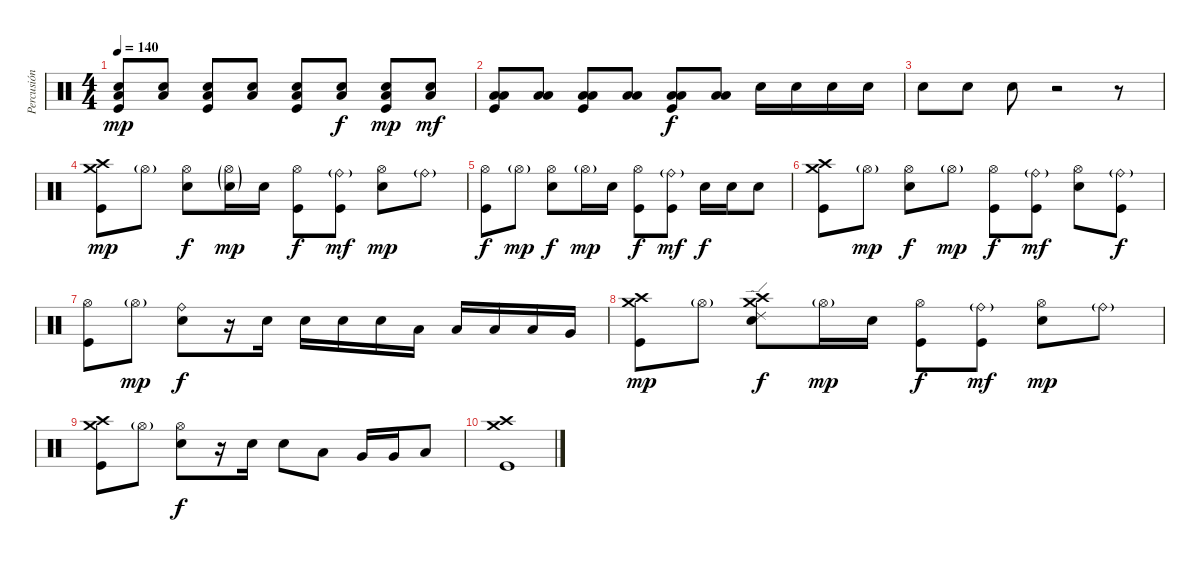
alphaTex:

\track ("Percusión" "Percusión") {instrument percussion}
\staff {score}
\articulation defaults
\ts (4 4)
\tempo 140
\clef neutral
\ks c
("Kick (hit)" "Low Floor Tom (hit)" "Electric Snare (hit)").8{dy mp} ("Low Floor Tom (hit)" "Electric Snare (hit)").8 ("Kick (hit)" "Low Floor Tom (hit)" "Electric Snare (hit)").8 ("Low Floor Tom (hit)" "Electric Snare (hit)").8 ("Kick (hit)" "Low Floor Tom (hit)" "Electric Snare (hit)").8 ("Low Floor Tom (hit)" "Electric Snare (hit)").8{dy f} ("Kick (hit)" "Low Floor Tom (hit)" "Electric Snare (hit)").8{dy mp} ("Low Floor Tom (hit)" "Electric Snare (hit)").8{dy mf} |
("Kick (hit)" "Low Floor Tom (hit)" "Low Tom (hit)").8 ("Low Floor Tom (hit)" "Low Tom (hit)").8 ("Kick (hit)" "Low Floor Tom (hit)" "Low Tom (hit)").8 ("Low Floor Tom (hit)" "Low Tom (hit)").8 ("Kick (hit)" "Low Floor Tom (hit)" "Low Tom (hit)").8{dy f} ("Low Floor Tom (hit)" "Low Tom (hit)").8 "Electric Snare (hit)".16 "Electric Snare (hit)".16 "Electric Snare (hit)".16 "Electric Snare (hit)".16 |
"Electric Snare (hit)".8 "Electric Snare (hit)".8 "Electric Snare (hit)".8 r.2 r.8 |
("Crash high (hit)" "Kick (hit)" "Crash medium (hit)").8{dy mp} "Hi-Hat (open)"{g}.8 ("Hi-Hat (open)" "Electric Snare (hit)").8{dy f} ("Hi-Hat (open)"{g} "Electric Snare (hit)"{g}).16{dy mp} "Electric Snare (hit)".16 ("Hi-Hat (open)" "Kick (hit)").8{dy f} ("Ride (bell)"{g} "Kick (hit)").8{dy mf} ("Hi-Hat (open)" "Electric Snare (hit)").8{dy mp} "Ride (bell)"{g}.8 |
("Hi-Hat (open)" "Kick (hit)").8{dy f} "Hi-Hat (open)"{g}.8{dy mp} ("Hi-Hat (open)" "Electric Snare (hit)").8{dy f} "Hi-Hat (open)"{g}.16{dy mp} "Electric Snare (hit)".16 ("Hi-Hat (open)" "Kick (hit)").8{dy f} ("Ride (bell)"{g} "Kick (hit)").8{dy mf} "Electric Snare (hit)".16{dy f} "Electric Snare (hit)".16 "Electric Snare (hit)".8 |
("Crash medium (hit)" "Kick (hit)" "Crash high (hit)").8 "Hi-Hat (open)"{g}.8{dy mp} ("Hi-Hat (open)" "Electric Snare (hit)").8{dy f} "Hi-Hat (open)"{g}.8{dy mp} ("Hi-Hat (open)" "Kick (hit)").8{dy f} ("Ride (bell)"{g} "Kick (hit)").8{dy mf} ("Hi-Hat (open)" "Electric Snare (hit)").8 ("Ride (bell)"{g} "Kick (hit)").8{dy f} |
("Hi-Hat (open)" "Kick (hit)").8 "Hi-Hat (open)"{g}.8{dy mp} ("Ride (bell)" "Electric Snare (hit)").8{dy f} r.16 "Electric Snare (hit)".16 "Electric Snare (hit)".16 "Electric Snare (hit)".16 "Electric Snare (hit)".16 "Low Tom (hit)".16 "Low Tom (hit)".16 "Low Tom (hit)".16 "Low Tom (hit)".16 "Very Low Tom (hit)".16 |
("Crash high (hit)" "Kick (hit)" "Crash medium (hit)").8{dy mp} "Hi-Hat (open)"{g}.8 ("Ride (edge) 2" "Electric Snare (hit)" "Crash high (hit)" "Crash medium (hit)").8{dy f} "Hi-Hat (open)"{g}.16{dy mp} "Electric Snare (hit)".16 ("Hi-Hat (open)" "Kick (hit)").8{dy f} ("Ride (bell)"{g} "Kick (hit)").8{dy mf} ("Hi-Hat (open)" "Electric Snare (hit)").8{dy mp} "Ride (bell)"{g}.8 |
("Crash high (hit)" "Kick (hit)" "Crash medium (hit)").8 "Hi-Hat (open)"{g}.8 ("Hi-Hat (open)" "Electric Snare (hit)").8{dy f} r.16 "Electric Snare (hit)".16 "Electric Snare (hit)".8 "Low Tom (hit)".8 "Very Low Tom (hit)".16 "Very Low Tom (hit)".16 "Low Floor Tom (hit)".8 |
("Crash high (hit)" "Crash medium (hit)" "Kick (hit)").1
